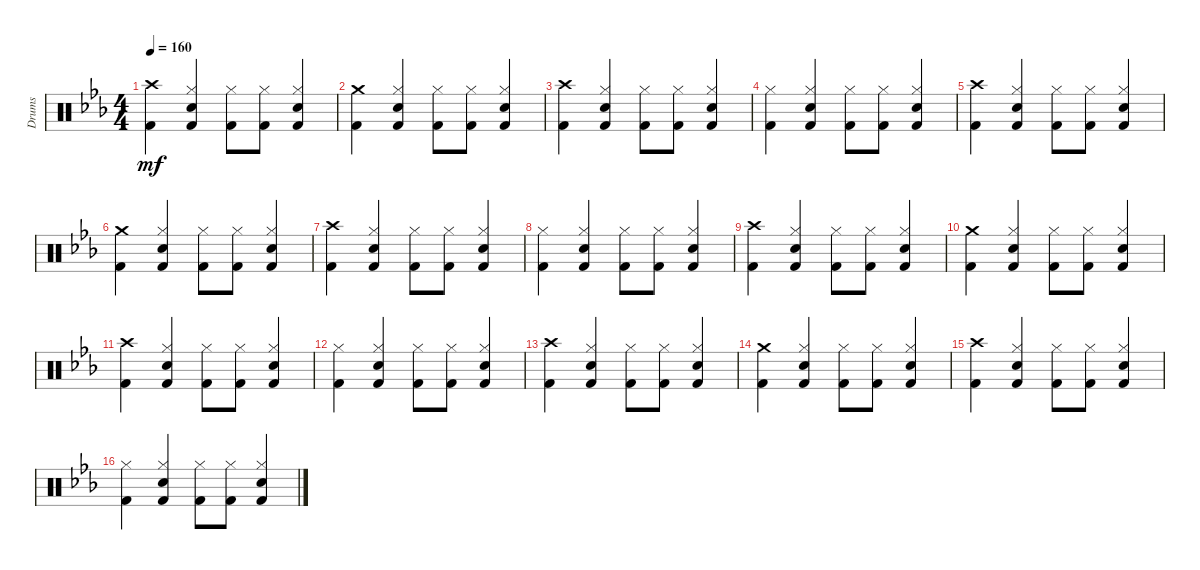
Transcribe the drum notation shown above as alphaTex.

\track ("Drums" "Drums") {instrument percussion}
\staff {score}
\articulation defaults
\ts (4 4)
\tempo 160
\clef neutral
\ks eb
("Crash high (hit)" "Kick (hit) 2").4{dy mf} ("Hi-Hat (closed)" "Electric Snare (hit)" "Kick (hit) 2").4 ("Hi-Hat (closed)" "Kick (hit) 2").8 ("Hi-Hat (closed)" "Kick (hit) 2").8 ("Hi-Hat (closed)" "Electric Snare (hit)" "Kick (hit) 2").4 |
("Crash medium (hit)" "Kick (hit) 2").4 ("Hi-Hat (closed)" "Electric Snare (hit)" "Kick (hit) 2").4 ("Hi-Hat (closed)" "Kick (hit) 2").8 ("Hi-Hat (closed)" "Kick (hit) 2").8 ("Hi-Hat (closed)" "Electric Snare (hit)" "Kick (hit) 2").4 |
("Crash high (hit)" "Kick (hit) 2").4 ("Hi-Hat (closed)" "Electric Snare (hit)" "Kick (hit) 2").4 ("Hi-Hat (closed)" "Kick (hit) 2").8 ("Hi-Hat (closed)" "Kick (hit) 2").8 ("Hi-Hat (closed)" "Electric Snare (hit)" "Kick (hit) 2").4 |
("Hi-Hat (closed)" "Kick (hit) 2").4 ("Hi-Hat (closed)" "Electric Snare (hit)" "Kick (hit) 2").4 ("Hi-Hat (closed)" "Kick (hit) 2").8 ("Hi-Hat (closed)" "Kick (hit) 2").8 ("Hi-Hat (closed)" "Electric Snare (hit)" "Kick (hit) 2").4 |
("Crash high (hit)" "Kick (hit) 2").4 ("Hi-Hat (closed)" "Electric Snare (hit)" "Kick (hit) 2").4 ("Hi-Hat (closed)" "Kick (hit) 2").8 ("Hi-Hat (closed)" "Kick (hit) 2").8 ("Hi-Hat (closed)" "Electric Snare (hit)" "Kick (hit) 2").4 |
("Crash medium (hit)" "Kick (hit) 2").4 ("Hi-Hat (closed)" "Electric Snare (hit)" "Kick (hit) 2").4 ("Hi-Hat (closed)" "Kick (hit) 2").8 ("Hi-Hat (closed)" "Kick (hit) 2").8 ("Hi-Hat (closed)" "Electric Snare (hit)" "Kick (hit) 2").4 |
("Crash high (hit)" "Kick (hit) 2").4 ("Hi-Hat (closed)" "Electric Snare (hit)" "Kick (hit) 2").4 ("Hi-Hat (closed)" "Kick (hit) 2").8 ("Hi-Hat (closed)" "Kick (hit) 2").8 ("Hi-Hat (closed)" "Electric Snare (hit)" "Kick (hit) 2").4 |
("Hi-Hat (closed)" "Kick (hit) 2").4 ("Hi-Hat (closed)" "Electric Snare (hit)" "Kick (hit) 2").4 ("Hi-Hat (closed)" "Kick (hit) 2").8 ("Hi-Hat (closed)" "Kick (hit) 2").8 ("Hi-Hat (closed)" "Electric Snare (hit)" "Kick (hit) 2").4 |
("Crash high (hit)" "Kick (hit) 2").4 ("Hi-Hat (closed)" "Electric Snare (hit)" "Kick (hit) 2").4 ("Hi-Hat (closed)" "Kick (hit) 2").8 ("Hi-Hat (closed)" "Kick (hit) 2").8 ("Hi-Hat (closed)" "Electric Snare (hit)" "Kick (hit) 2").4 |
("Crash medium (hit)" "Kick (hit) 2").4 ("Hi-Hat (closed)" "Electric Snare (hit)" "Kick (hit) 2").4 ("Hi-Hat (closed)" "Kick (hit) 2").8 ("Hi-Hat (closed)" "Kick (hit) 2").8 ("Hi-Hat (closed)" "Electric Snare (hit)" "Kick (hit) 2").4 |
("Crash high (hit)" "Kick (hit) 2").4 ("Hi-Hat (closed)" "Electric Snare (hit)" "Kick (hit) 2").4 ("Hi-Hat (closed)" "Kick (hit) 2").8 ("Hi-Hat (closed)" "Kick (hit) 2").8 ("Hi-Hat (closed)" "Electric Snare (hit)" "Kick (hit) 2").4 |
("Hi-Hat (closed)" "Kick (hit) 2").4 ("Hi-Hat (closed)" "Electric Snare (hit)" "Kick (hit) 2").4 ("Hi-Hat (closed)" "Kick (hit) 2").8 ("Hi-Hat (closed)" "Kick (hit) 2").8 ("Hi-Hat (closed)" "Electric Snare (hit)" "Kick (hit) 2").4 |
("Crash high (hit)" "Kick (hit) 2").4 ("Hi-Hat (closed)" "Electric Snare (hit)" "Kick (hit) 2").4 ("Hi-Hat (closed)" "Kick (hit) 2").8 ("Hi-Hat (closed)" "Kick (hit) 2").8 ("Hi-Hat (closed)" "Electric Snare (hit)" "Kick (hit) 2").4 |
("Crash medium (hit)" "Kick (hit) 2").4 ("Hi-Hat (closed)" "Electric Snare (hit)" "Kick (hit) 2").4 ("Hi-Hat (closed)" "Kick (hit) 2").8 ("Hi-Hat (closed)" "Kick (hit) 2").8 ("Hi-Hat (closed)" "Electric Snare (hit)" "Kick (hit) 2").4 |
("Crash high (hit)" "Kick (hit) 2").4 ("Hi-Hat (closed)" "Electric Snare (hit)" "Kick (hit) 2").4 ("Hi-Hat (closed)" "Kick (hit) 2").8 ("Hi-Hat (closed)" "Kick (hit) 2").8 ("Hi-Hat (closed)" "Electric Snare (hit)" "Kick (hit) 2").4 |
("Hi-Hat (closed)" "Kick (hit) 2").4 ("Hi-Hat (closed)" "Electric Snare (hit)" "Kick (hit) 2").4 ("Hi-Hat (closed)" "Kick (hit) 2").8 ("Hi-Hat (closed)" "Kick (hit) 2").8 ("Hi-Hat (closed)" "Electric Snare (hit)" "Kick (hit) 2").4
